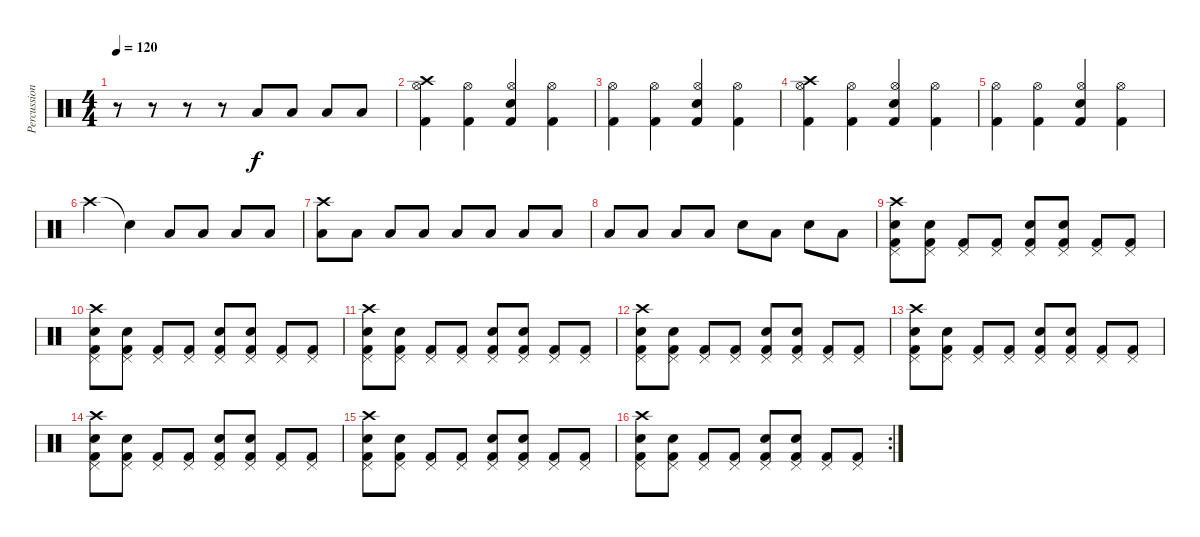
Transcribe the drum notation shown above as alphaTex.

\track ("Percussion" "Percussion") {instrument percussion}
\staff {score}
\articulation defaults
\ts (4 4)
\tempo 120
\clef neutral
\ks c
r.8{dy f} r.8 r.8 r.8 "Low Floor Tom (hit)".8 "Low Floor Tom (hit)".8 "Low Floor Tom (hit)".8 "Low Floor Tom (hit)".8 |
("Crash high (hit)" "Kick (hit) 2" "Hi-Hat (open)").4 ("Kick (hit) 2" "Hi-Hat (open)").4 ("Snare (hit) 2" "Kick (hit) 2" "Hi-Hat (open)").4 ("Kick (hit) 2" "Hi-Hat (open)").4 |
("Kick (hit) 2" "Hi-Hat (open)").4 ("Kick (hit) 2" "Hi-Hat (open)").4 ("Snare (hit) 2" "Kick (hit) 2" "Hi-Hat (open)").4 ("Kick (hit) 2" "Hi-Hat (open)").4 |
("Crash high (hit)" "Kick (hit) 2" "Hi-Hat (open)").4 ("Kick (hit) 2" "Hi-Hat (open)").4 ("Snare (hit) 2" "Kick (hit) 2" "Hi-Hat (open)").4 ("Kick (hit) 2" "Hi-Hat (open)").4 |
("Kick (hit) 2" "Hi-Hat (open)").4 ("Kick (hit) 2" "Hi-Hat (open)").4 ("Snare (hit) 2" "Kick (hit) 2" "Hi-Hat (open)").4 ("Kick (hit) 2" "Hi-Hat (open)").4 |
"Crash high (hit)".4 "Snare (hit)"{t}.4 "Low Floor Tom (hit)".8 "Low Floor Tom (hit)".8 "Low Floor Tom (hit)".8 "Low Floor Tom (hit)".8 |
("Low Floor Tom (hit)" "Crash high (hit)").8 "Low Floor Tom (hit)".8 "Low Floor Tom (hit)".8 "Low Floor Tom (hit)".8 "Low Floor Tom (hit)".8 "Low Floor Tom (hit)".8 "Low Floor Tom (hit)".8 "Low Floor Tom (hit)".8 |
"Low Floor Tom (hit)".8 "Low Floor Tom (hit)".8 "Low Floor Tom (hit)".8 "Low Floor Tom (hit)".8 "Snare (hit) 2".8 "Low Floor Tom (hit)".8 "Snare (hit) 2".8 "Low Floor Tom (hit)".8 |
("Kick (hit) 2" "Pedal Hi-Hat (hit)" "Snare (hit) 2" "Crash high (hit)").8 ("Kick (hit) 2" "Pedal Hi-Hat (hit)" "Snare (hit) 2").8 ("Kick (hit) 2" "Pedal Hi-Hat (hit)").8 ("Kick (hit) 2" "Pedal Hi-Hat (hit)").8 ("Kick (hit) 2" "Pedal Hi-Hat (hit)" "Snare (hit) 2").8 ("Kick (hit) 2" "Pedal Hi-Hat (hit)" "Snare (hit) 2").8 ("Kick (hit) 2" "Pedal Hi-Hat (hit)").8 ("Kick (hit) 2" "Pedal Hi-Hat (hit)").8 |
("Kick (hit) 2" "Pedal Hi-Hat (hit)" "Snare (hit) 2" "Crash high (hit)").8 ("Kick (hit) 2" "Pedal Hi-Hat (hit)" "Snare (hit) 2").8 ("Kick (hit) 2" "Pedal Hi-Hat (hit)").8 ("Kick (hit) 2" "Pedal Hi-Hat (hit)").8 ("Kick (hit) 2" "Pedal Hi-Hat (hit)" "Snare (hit) 2").8 ("Kick (hit) 2" "Pedal Hi-Hat (hit)" "Snare (hit) 2").8 ("Kick (hit) 2" "Pedal Hi-Hat (hit)").8 ("Kick (hit) 2" "Pedal Hi-Hat (hit)").8 |
("Kick (hit) 2" "Pedal Hi-Hat (hit)" "Snare (hit) 2" "Crash high (hit)").8 ("Kick (hit) 2" "Pedal Hi-Hat (hit)" "Snare (hit) 2").8 ("Kick (hit) 2" "Pedal Hi-Hat (hit)").8 ("Kick (hit) 2" "Pedal Hi-Hat (hit)").8 ("Kick (hit) 2" "Pedal Hi-Hat (hit)" "Snare (hit) 2").8 ("Kick (hit) 2" "Pedal Hi-Hat (hit)" "Snare (hit) 2").8 ("Kick (hit) 2" "Pedal Hi-Hat (hit)").8 ("Kick (hit) 2" "Pedal Hi-Hat (hit)").8 |
("Kick (hit) 2" "Pedal Hi-Hat (hit)" "Snare (hit) 2" "Crash high (hit)").8 ("Kick (hit) 2" "Pedal Hi-Hat (hit)" "Snare (hit) 2").8 ("Kick (hit) 2" "Pedal Hi-Hat (hit)").8 ("Kick (hit) 2" "Pedal Hi-Hat (hit)").8 ("Kick (hit) 2" "Pedal Hi-Hat (hit)" "Snare (hit) 2").8 ("Kick (hit) 2" "Pedal Hi-Hat (hit)" "Snare (hit) 2").8 ("Kick (hit) 2" "Pedal Hi-Hat (hit)").8 ("Kick (hit) 2" "Pedal Hi-Hat (hit)").8 |
("Kick (hit) 2" "Pedal Hi-Hat (hit)" "Snare (hit) 2" "Crash high (hit)").8 ("Kick (hit) 2" "Pedal Hi-Hat (hit)" "Snare (hit) 2").8 ("Kick (hit) 2" "Pedal Hi-Hat (hit)").8 ("Kick (hit) 2" "Pedal Hi-Hat (hit)").8 ("Kick (hit) 2" "Pedal Hi-Hat (hit)" "Snare (hit) 2").8 ("Kick (hit) 2" "Pedal Hi-Hat (hit)" "Snare (hit) 2").8 ("Kick (hit) 2" "Pedal Hi-Hat (hit)").8 ("Kick (hit) 2" "Pedal Hi-Hat (hit)").8 |
("Kick (hit) 2" "Pedal Hi-Hat (hit)" "Snare (hit) 2" "Crash high (hit)").8 ("Kick (hit) 2" "Pedal Hi-Hat (hit)" "Snare (hit) 2").8 ("Kick (hit) 2" "Pedal Hi-Hat (hit)").8 ("Kick (hit) 2" "Pedal Hi-Hat (hit)").8 ("Kick (hit) 2" "Pedal Hi-Hat (hit)" "Snare (hit) 2").8 ("Kick (hit) 2" "Pedal Hi-Hat (hit)" "Snare (hit) 2").8 ("Kick (hit) 2" "Pedal Hi-Hat (hit)").8 ("Kick (hit) 2" "Pedal Hi-Hat (hit)").8 |
("Kick (hit) 2" "Pedal Hi-Hat (hit)" "Snare (hit) 2" "Crash high (hit)").8 ("Kick (hit) 2" "Pedal Hi-Hat (hit)" "Snare (hit) 2").8 ("Kick (hit) 2" "Pedal Hi-Hat (hit)").8 ("Kick (hit) 2" "Pedal Hi-Hat (hit)").8 ("Kick (hit) 2" "Pedal Hi-Hat (hit)" "Snare (hit) 2").8 ("Kick (hit) 2" "Pedal Hi-Hat (hit)" "Snare (hit) 2").8 ("Kick (hit) 2" "Pedal Hi-Hat (hit)").8 ("Kick (hit) 2" "Pedal Hi-Hat (hit)").8 |
\rc 2
("Kick (hit) 2" "Pedal Hi-Hat (hit)" "Snare (hit) 2" "Crash high (hit)").8 ("Kick (hit) 2" "Pedal Hi-Hat (hit)" "Snare (hit) 2").8 ("Kick (hit) 2" "Pedal Hi-Hat (hit)").8 ("Kick (hit) 2" "Pedal Hi-Hat (hit)").8 ("Kick (hit) 2" "Pedal Hi-Hat (hit)" "Snare (hit) 2").8 ("Kick (hit) 2" "Pedal Hi-Hat (hit)" "Snare (hit) 2").8 ("Kick (hit) 2" "Pedal Hi-Hat (hit)").8 ("Kick (hit) 2" "Pedal Hi-Hat (hit)").8
